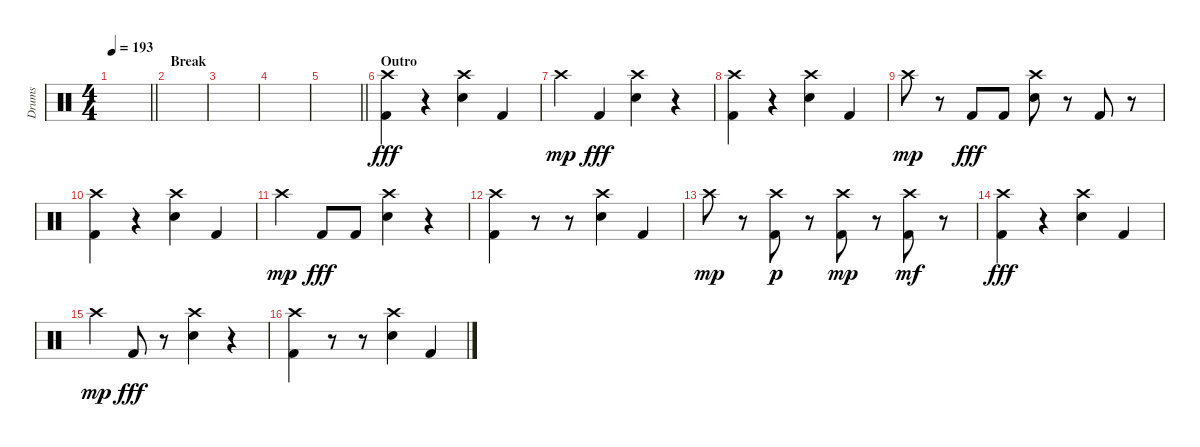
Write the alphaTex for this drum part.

\track ("Drums" "Drums") {instrument percussion}
\staff {score}
\articulation defaults
\ts (4 4)
\tempo 193
\clef neutral
\barLineRight lightlight
\ks c
|
\section ("" "Break")
|
|
|
\barLineRight lightlight
|
\section ("" "Outro")
("Crash high (hit)" "Kick (hit) 2").4{dy fff} r.4 ("Crash high (hit)" "Snare (hit) 2").4 "Kick (hit) 2".4 |
"Crash high (hit)".4{dy mp} "Kick (hit) 2".4{dy fff} ("Crash high (hit)" "Snare (hit) 2").4 r.4 |
("Crash high (hit)" "Kick (hit) 2").4 r.4 ("Crash high (hit)" "Snare (hit) 2").4 "Kick (hit) 2".4 |
"Crash high (hit)".8{dy mp} r.8 "Kick (hit) 2".8{dy fff} "Kick (hit) 2".8 ("Crash high (hit)" "Snare (hit) 2").8 r.8 "Kick (hit) 2".8 r.8 |
("Crash high (hit)" "Kick (hit) 2").4 r.4 ("Crash high (hit)" "Snare (hit) 2").4 "Kick (hit) 2".4 |
"Crash high (hit)".4{dy mp} "Kick (hit) 2".8{dy fff} "Kick (hit) 2".8 ("Crash high (hit)" "Snare (hit) 2").4 r.4 |
("Crash high (hit)" "Kick (hit) 2").4 r.8 r.8 ("Crash high (hit)" "Snare (hit) 2").4 "Kick (hit) 2".4 |
"Crash high (hit)".8{dy mp} r.8 ("Crash high (hit)" "Kick (hit) 2").8{dy p} r.8 ("Crash high (hit)" "Kick (hit) 2").8{dy mp} r.8 ("Crash high (hit)" "Kick (hit) 2").8{dy mf} r.8 |
("Crash high (hit)" "Kick (hit) 2").4{dy fff} r.4 ("Crash high (hit)" "Snare (hit) 2").4 "Kick (hit) 2".4 |
"Crash high (hit)".4{dy mp} "Kick (hit) 2".8{dy fff} r.8 ("Crash high (hit)" "Snare (hit) 2").4 r.4 |
("Crash high (hit)" "Kick (hit) 2").4 r.8 r.8 ("Crash high (hit)" "Snare (hit) 2").4 "Kick (hit) 2".4
